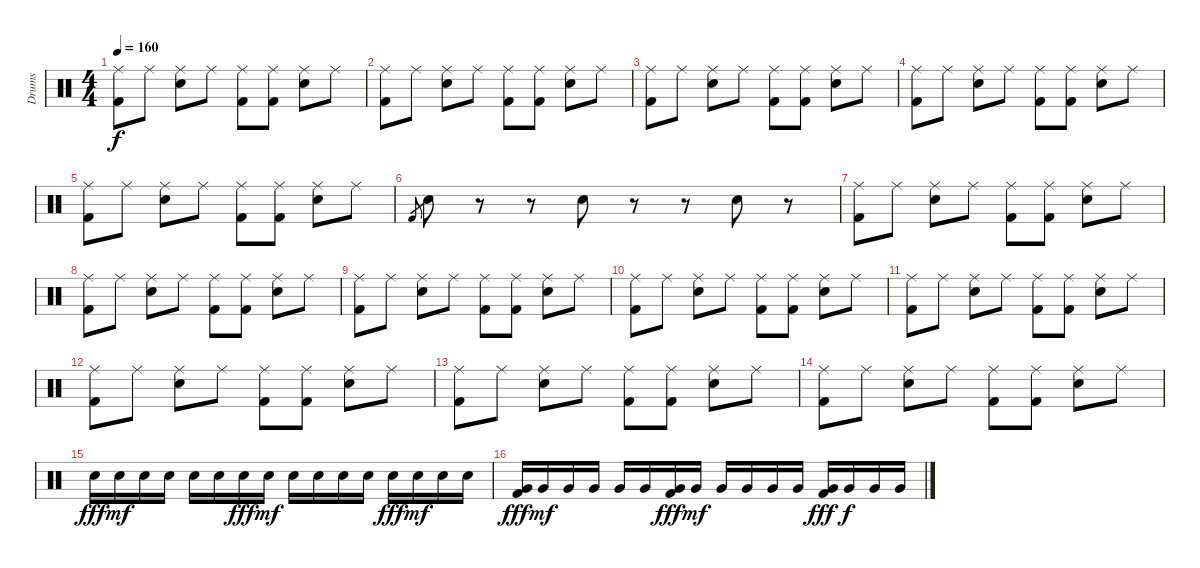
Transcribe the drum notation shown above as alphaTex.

\track ("Drums" "Drums") {instrument percussion}
\staff {score}
\articulation defaults
\ts (4 4)
\tempo 160
\clef neutral
\ks c
("Ride (middle)" "Kick (hit) 2").8{dy f} "Ride (middle)".8 ("Ride (middle)" "Electric Snare (hit)").8 "Ride (middle)".8 ("Ride (middle)" "Kick (hit) 2").8 ("Ride (middle)" "Kick (hit) 2").8 ("Ride (middle)" "Electric Snare (hit)").8 "Ride (middle)".8 |
("Ride (middle)" "Kick (hit) 2").8 "Ride (middle)".8 ("Ride (middle)" "Electric Snare (hit)").8 "Ride (middle)".8 ("Ride (middle)" "Kick (hit) 2").8 ("Ride (middle)" "Kick (hit) 2").8 ("Ride (middle)" "Electric Snare (hit)").8 "Ride (middle)".8 |
("Ride (middle)" "Kick (hit) 2").8 "Ride (middle)".8 ("Ride (middle)" "Electric Snare (hit)").8 "Ride (middle)".8 ("Ride (middle)" "Kick (hit) 2").8 ("Ride (middle)" "Kick (hit) 2").8 ("Ride (middle)" "Electric Snare (hit)").8 "Ride (middle)".8 |
("Ride (middle)" "Kick (hit) 2").8 "Ride (middle)".8 ("Ride (middle)" "Electric Snare (hit)").8 "Ride (middle)".8 ("Ride (middle)" "Kick (hit) 2").8 ("Ride (middle)" "Kick (hit) 2").8 ("Ride (middle)" "Electric Snare (hit)").8 "Ride (middle)".8 |
("Ride (middle)" "Kick (hit) 2").8 "Ride (middle)".8 ("Ride (middle)" "Electric Snare (hit)").8 "Ride (middle)".8 ("Ride (middle)" "Kick (hit) 2").8 ("Ride (middle)" "Kick (hit) 2").8 ("Ride (middle)" "Electric Snare (hit)").8 "Ride (middle)".8 |
"Kick (hit) 2".8{gr} "Electric Snare (hit)".8 r.8 r.8 "Electric Snare (hit)".8 r.8 r.8 "Electric Snare (hit)".8 r.8 |
("Ride (middle)" "Kick (hit) 2").8 "Ride (middle)".8 ("Ride (middle)" "Electric Snare (hit)").8 "Ride (middle)".8 ("Ride (middle)" "Kick (hit) 2").8 ("Ride (middle)" "Kick (hit) 2").8 ("Ride (middle)" "Electric Snare (hit)").8 "Ride (middle)".8 |
("Ride (middle)" "Kick (hit) 2").8 "Ride (middle)".8 ("Ride (middle)" "Electric Snare (hit)").8 "Ride (middle)".8 ("Ride (middle)" "Kick (hit) 2").8 ("Ride (middle)" "Kick (hit) 2").8 ("Ride (middle)" "Electric Snare (hit)").8 "Ride (middle)".8 |
("Ride (middle)" "Kick (hit) 2").8 "Ride (middle)".8 ("Ride (middle)" "Electric Snare (hit)").8 "Ride (middle)".8 ("Ride (middle)" "Kick (hit) 2").8 ("Ride (middle)" "Kick (hit) 2").8 ("Ride (middle)" "Electric Snare (hit)").8 "Ride (middle)".8 |
("Ride (middle)" "Kick (hit) 2").8 "Ride (middle)".8 ("Ride (middle)" "Electric Snare (hit)").8 "Ride (middle)".8 ("Ride (middle)" "Kick (hit) 2").8 ("Ride (middle)" "Kick (hit) 2").8 ("Ride (middle)" "Electric Snare (hit)").8 "Ride (middle)".8 |
("Ride (middle)" "Kick (hit) 2").8 "Ride (middle)".8 ("Ride (middle)" "Electric Snare (hit)").8 "Ride (middle)".8 ("Ride (middle)" "Kick (hit) 2").8 ("Ride (middle)" "Kick (hit) 2").8 ("Ride (middle)" "Electric Snare (hit)").8 "Ride (middle)".8 |
("Ride (middle)" "Kick (hit) 2").8 "Ride (middle)".8 ("Ride (middle)" "Electric Snare (hit)").8 "Ride (middle)".8 ("Ride (middle)" "Kick (hit) 2").8 ("Ride (middle)" "Kick (hit) 2").8 ("Ride (middle)" "Electric Snare (hit)").8 "Ride (middle)".8 |
("Ride (middle)" "Kick (hit) 2").8 "Ride (middle)".8 ("Ride (middle)" "Electric Snare (hit)").8 "Ride (middle)".8 ("Ride (middle)" "Kick (hit) 2").8 ("Ride (middle)" "Kick (hit) 2").8 ("Ride (middle)" "Electric Snare (hit)").8 "Ride (middle)".8 |
("Ride (middle)" "Kick (hit) 2").8 "Ride (middle)".8 ("Ride (middle)" "Electric Snare (hit)").8 "Ride (middle)".8 ("Ride (middle)" "Kick (hit) 2").8 ("Ride (middle)" "Kick (hit) 2").8 ("Ride (middle)" "Electric Snare (hit)").8 "Ride (middle)".8 |
"Electric Snare (hit)".16{dy fff} "Electric Snare (hit)".16{dy mf} "Electric Snare (hit)".16 "Electric Snare (hit)".16 "Electric Snare (hit)".16 "Electric Snare (hit)".16 "Electric Snare (hit)".16{dy fff} "Electric Snare (hit)".16{dy mf} "Electric Snare (hit)".16 "Electric Snare (hit)".16 "Electric Snare (hit)".16 "Electric Snare (hit)".16 "Electric Snare (hit)".16{dy fff} "Electric Snare (hit)".16{dy mf} "Electric Snare (hit)".16 "Electric Snare (hit)".16 |
("Very Low Tom (hit)" "Kick (hit) 2").16{dy fff} "Very Low Tom (hit)".16{dy mf} "Very Low Tom (hit)".16 "Very Low Tom (hit)".16 "Very Low Tom (hit)".16 "Very Low Tom (hit)".16 ("Very Low Tom (hit)" "Kick (hit) 2").16{dy fff} "Very Low Tom (hit)".16{dy mf} "Very Low Tom (hit)".16 "Very Low Tom (hit)".16 "Very Low Tom (hit)".16 "Very Low Tom (hit)".16 ("Very Low Tom (hit)" "Kick (hit) 2").16{dy fff} "Very Low Tom (hit)".16{dy f} "Very Low Tom (hit)".16 "Very Low Tom (hit)".16
